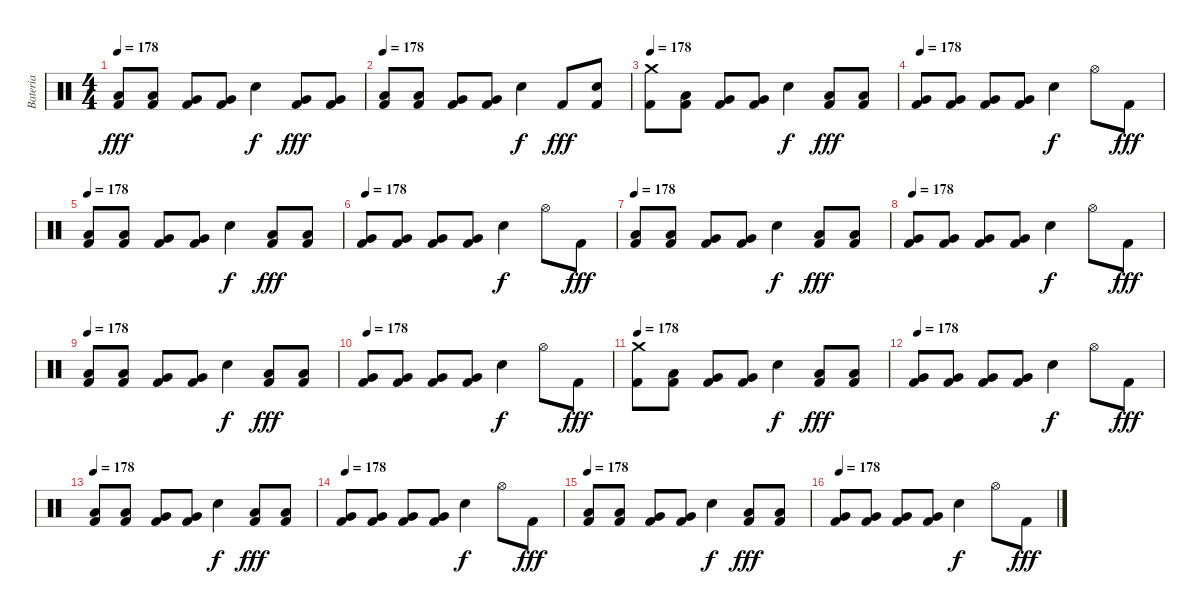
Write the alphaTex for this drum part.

\track ("Bateria" "Bateria") {instrument percussion}
\staff {score}
\articulation defaults
\ts (4 4)
\tempo 178
\clef neutral
\ks c
("Low Tom (hit)" "Kick (hit) 2").8{dy fff} ("Low Tom (hit)" "Kick (hit) 2").8 ("Very Low Tom (hit)" "Kick (hit) 2").8 ("Very Low Tom (hit)" "Kick (hit) 2").8 "Electric Snare (hit)".4{dy f} ("Very Low Tom (hit)" "Kick (hit) 2").8{dy fff} ("Very Low Tom (hit)" "Kick (hit) 2").8 |
\tempo 178
("Low Tom (hit)" "Kick (hit) 2").8 ("Low Tom (hit)" "Kick (hit) 2").8 ("Very Low Tom (hit)" "Kick (hit) 2").8 ("Very Low Tom (hit)" "Kick (hit) 2").8 "Electric Snare (hit)".4{dy f} "Kick (hit) 2".8{dy fff} ("Electric Snare (hit)" "Kick (hit) 2").8 |
\tempo 178
("Crash medium (hit)" "Kick (hit) 2").8 ("Low Tom (hit)" "Kick (hit) 2").8 ("Very Low Tom (hit)" "Kick (hit) 2").8 ("Very Low Tom (hit)" "Kick (hit) 2").8 "Electric Snare (hit)".4{dy f} ("Low Tom (hit)" "Kick (hit) 2").8{dy fff} ("Low Tom (hit)" "Kick (hit) 2").8 |
\tempo 178
("Very Low Tom (hit)" "Kick (hit) 2").8 ("Very Low Tom (hit)" "Kick (hit) 2").8 ("Very Low Tom (hit)" "Kick (hit) 2").8 ("Very Low Tom (hit)" "Kick (hit) 2").8 "Electric Snare (hit)".4{dy f} "Hi-Hat (open)".8 "Kick (hit) 2".8{dy fff} |
\tempo 178
("Low Tom (hit)" "Kick (hit) 2").8 ("Low Tom (hit)" "Kick (hit) 2").8 ("Very Low Tom (hit)" "Kick (hit) 2").8 ("Very Low Tom (hit)" "Kick (hit) 2").8 "Electric Snare (hit)".4{dy f} ("Low Tom (hit)" "Kick (hit) 2").8{dy fff} ("Low Tom (hit)" "Kick (hit) 2").8 |
\tempo 178
("Very Low Tom (hit)" "Kick (hit) 2").8 ("Very Low Tom (hit)" "Kick (hit) 2").8 ("Very Low Tom (hit)" "Kick (hit) 2").8 ("Very Low Tom (hit)" "Kick (hit) 2").8 "Electric Snare (hit)".4{dy f} "Hi-Hat (open)".8 "Kick (hit) 2".8{dy fff} |
\tempo 178
("Low Tom (hit)" "Kick (hit) 2").8 ("Low Tom (hit)" "Kick (hit) 2").8 ("Very Low Tom (hit)" "Kick (hit) 2").8 ("Very Low Tom (hit)" "Kick (hit) 2").8 "Electric Snare (hit)".4{dy f} ("Low Tom (hit)" "Kick (hit) 2").8{dy fff} ("Low Tom (hit)" "Kick (hit) 2").8 |
\tempo 178
("Very Low Tom (hit)" "Kick (hit) 2").8 ("Very Low Tom (hit)" "Kick (hit) 2").8 ("Very Low Tom (hit)" "Kick (hit) 2").8 ("Very Low Tom (hit)" "Kick (hit) 2").8 "Electric Snare (hit)".4{dy f} "Hi-Hat (open)".8 "Kick (hit) 2".8{dy fff} |
\tempo 178
("Low Tom (hit)" "Kick (hit) 2").8 ("Low Tom (hit)" "Kick (hit) 2").8 ("Very Low Tom (hit)" "Kick (hit) 2").8 ("Very Low Tom (hit)" "Kick (hit) 2").8 "Electric Snare (hit)".4{dy f} ("Low Tom (hit)" "Kick (hit) 2").8{dy fff} ("Low Tom (hit)" "Kick (hit) 2").8 |
\tempo 178
("Very Low Tom (hit)" "Kick (hit) 2").8 ("Very Low Tom (hit)" "Kick (hit) 2").8 ("Very Low Tom (hit)" "Kick (hit) 2").8 ("Very Low Tom (hit)" "Kick (hit) 2").8 "Electric Snare (hit)".4{dy f} "Hi-Hat (open)".8 "Kick (hit) 2".8{dy fff} |
\tempo 178
("Crash medium (hit)" "Kick (hit) 2").8 ("Low Tom (hit)" "Kick (hit) 2").8 ("Very Low Tom (hit)" "Kick (hit) 2").8 ("Very Low Tom (hit)" "Kick (hit) 2").8 "Electric Snare (hit)".4{dy f} ("Low Tom (hit)" "Kick (hit) 2").8{dy fff} ("Low Tom (hit)" "Kick (hit) 2").8 |
\tempo 178
("Very Low Tom (hit)" "Kick (hit) 2").8 ("Very Low Tom (hit)" "Kick (hit) 2").8 ("Very Low Tom (hit)" "Kick (hit) 2").8 ("Very Low Tom (hit)" "Kick (hit) 2").8 "Electric Snare (hit)".4{dy f} "Hi-Hat (open)".8 "Kick (hit) 2".8{dy fff} |
\tempo 178
("Low Tom (hit)" "Kick (hit) 2").8 ("Low Tom (hit)" "Kick (hit) 2").8 ("Very Low Tom (hit)" "Kick (hit) 2").8 ("Very Low Tom (hit)" "Kick (hit) 2").8 "Electric Snare (hit)".4{dy f} ("Low Tom (hit)" "Kick (hit) 2").8{dy fff} ("Low Tom (hit)" "Kick (hit) 2").8 |
\tempo 178
("Very Low Tom (hit)" "Kick (hit) 2").8 ("Very Low Tom (hit)" "Kick (hit) 2").8 ("Very Low Tom (hit)" "Kick (hit) 2").8 ("Very Low Tom (hit)" "Kick (hit) 2").8 "Electric Snare (hit)".4{dy f} "Hi-Hat (open)".8 "Kick (hit) 2".8{dy fff} |
\tempo 178
("Low Tom (hit)" "Kick (hit) 2").8 ("Low Tom (hit)" "Kick (hit) 2").8 ("Very Low Tom (hit)" "Kick (hit) 2").8 ("Very Low Tom (hit)" "Kick (hit) 2").8 "Electric Snare (hit)".4{dy f} ("Low Tom (hit)" "Kick (hit) 2").8{dy fff} ("Low Tom (hit)" "Kick (hit) 2").8 |
\tempo 178
("Very Low Tom (hit)" "Kick (hit) 2").8 ("Very Low Tom (hit)" "Kick (hit) 2").8 ("Very Low Tom (hit)" "Kick (hit) 2").8 ("Very Low Tom (hit)" "Kick (hit) 2").8 "Electric Snare (hit)".4{dy f} "Hi-Hat (open)".8 "Kick (hit) 2".8{dy fff}
